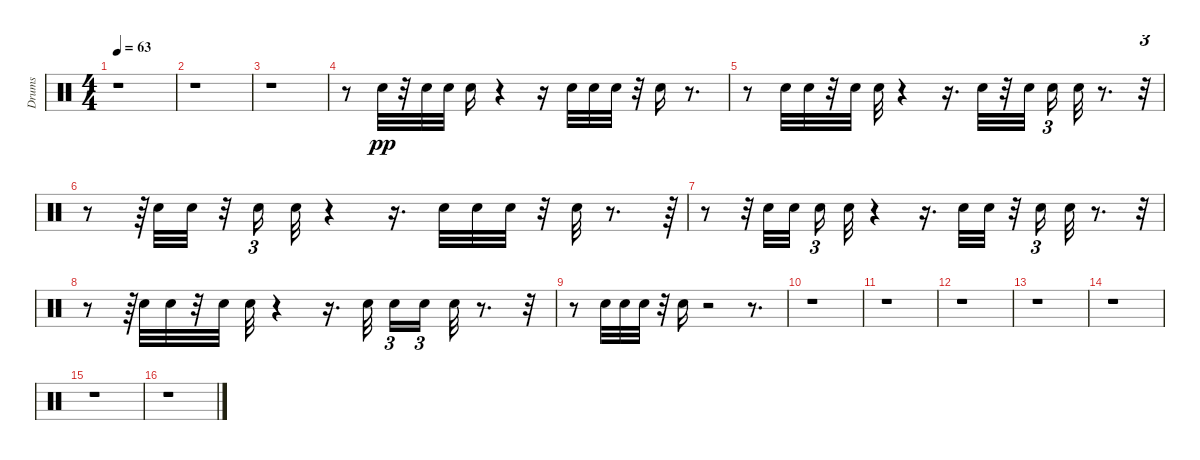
\track ("Drums" "Drums") {instrument percussion}
\staff {score}
\articulation defaults
\ts (4 4)
\tempo 63
\clef neutral
\ks c
r.1{dy pp} |
r.1 |
r.1 |
r.8 "Snare (hit) 2".32 r.32 "Snare (hit) 2".32 "Snare (hit) 2".32 "Snare (hit) 2".16 r.4 r.16 "Snare (hit) 2".32 "Snare (hit) 2".32 "Snare (hit) 2".32 r.32 "Snare (hit) 2".16 r.8{d} |
r.8 "Snare (hit) 2".32 "Snare (hit) 2".32 r.32 "Snare (hit) 2".32 "Snare (hit) 2".32 r.4 r.16{d} "Snare (hit) 2".32 r.32 "Snare (hit) 2".32 "Snare (hit) 2".16{tu (3 2)} "Snare (hit) 2".32 r.8{d} r.32{tu (3 2)} |
r.8 r.64{tu (3 2)} "Snare (hit) 2".32 "Snare (hit) 2".32 r.32 "Snare (hit) 2".16{tu (3 2)} "Snare (hit) 2".32 r.4 r.16{d} "Snare (hit) 2".32 "Snare (hit) 2".32 "Snare (hit) 2".32 r.32 "Snare (hit) 2".32 r.8{d} r.64{tu (3 2)} |
r.8 r.32{tu (3 2)} "Snare (hit) 2".32 "Snare (hit) 2".32{beam splitsecondary} "Snare (hit) 2".16{tu (3 2)} "Snare (hit) 2".32 r.4 r.16{d} "Snare (hit) 2".32 "Snare (hit) 2".32 r.32 "Snare (hit) 2".16{tu (3 2)} "Snare (hit) 2".32 r.8{d} r.32{tu (3 2)} |
r.8 r.64{tu (3 2)} "Snare (hit) 2".32 "Snare (hit) 2".32 r.32 "Snare (hit) 2".32 "Snare (hit) 2".32 r.4 r.16{d} "Snare (hit) 2".32{beam splitsecondary} "Snare (hit) 2".16{tu (3 2)} "Snare (hit) 2".16{tu (3 2)} "Snare (hit) 2".32 r.8{d} r.32 |
r.8 "Snare (hit) 2".32 "Snare (hit) 2".32 "Snare (hit) 2".32 r.32 "Snare (hit) 2".16 r.2 r.8{d} |
r.1 |
r.1 |
r.1 |
r.1 |
r.1 |
r.1 |
r.1
